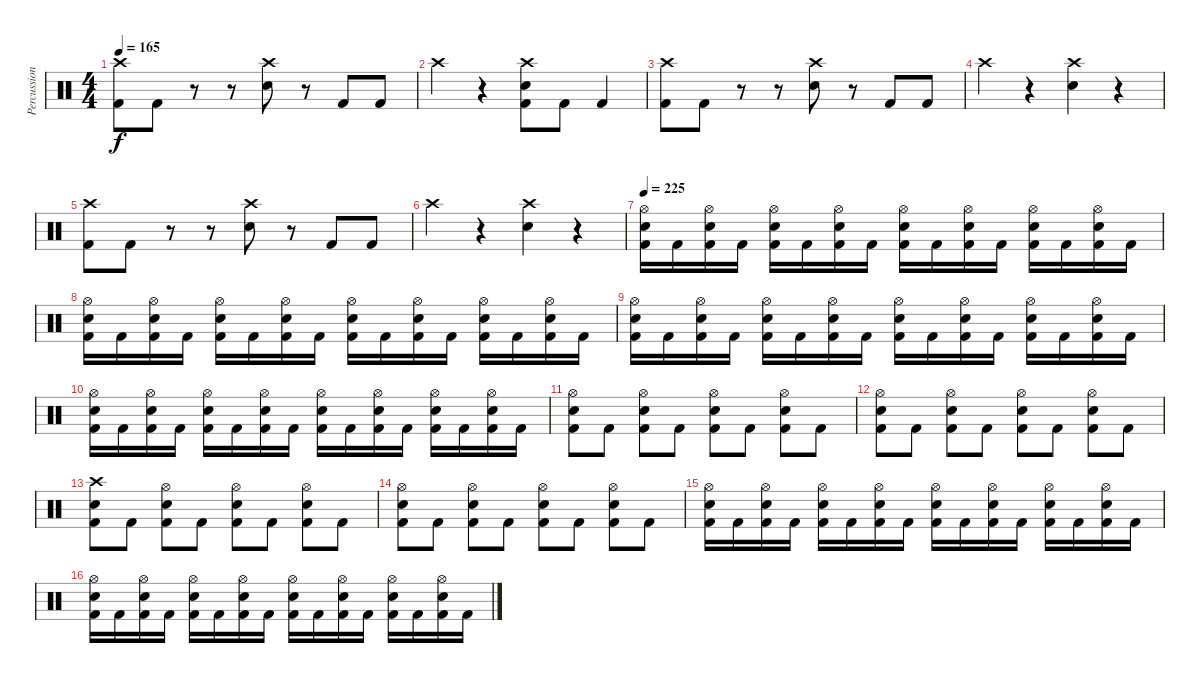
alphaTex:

\track ("Percussion" "Percussion") {instrument percussion}
\staff {score}
\articulation defaults
\ts (4 4)
\tempo 165
\clef neutral
\ks c
("Crash high (hit)" "Kick (hit) 2").8{dy f} "Kick (hit) 2".8 r.8 r.8 ("Crash high (hit)" "Electric Snare (hit)").8 r.8 "Kick (hit) 2".8 "Kick (hit) 2".8 |
"Crash high (hit)".4 r.4 ("Crash high (hit)" "Electric Snare (hit)" "Kick (hit) 2").8 "Kick (hit) 2".8 "Kick (hit) 2".4 |
("Crash high (hit)" "Kick (hit) 2").8 "Kick (hit) 2".8 r.8 r.8 ("Crash high (hit)" "Electric Snare (hit)").8 r.8 "Kick (hit) 2".8 "Kick (hit) 2".8 |
"Crash high (hit)".4 r.4 ("Crash high (hit)" "Electric Snare (hit)").4 r.4 |
("Crash high (hit)" "Kick (hit) 2").8 "Kick (hit) 2".8 r.8 r.8 ("Crash high (hit)" "Electric Snare (hit)").8 r.8 "Kick (hit) 2".8 "Kick (hit) 2".8 |
"Crash high (hit)".4 r.4 ("Crash high (hit)" "Electric Snare (hit)").4 r.4 |
\tempo 225
("Hi-Hat (open)" "Electric Snare (hit)" "Kick (hit) 2").16 "Kick (hit) 2".16 ("Hi-Hat (open)" "Electric Snare (hit)" "Kick (hit) 2").16 "Kick (hit) 2".16 ("Hi-Hat (open)" "Electric Snare (hit)" "Kick (hit) 2").16 "Kick (hit) 2".16 ("Hi-Hat (open)" "Electric Snare (hit)" "Kick (hit) 2").16 "Kick (hit) 2".16 ("Hi-Hat (open)" "Electric Snare (hit)" "Kick (hit) 2").16 "Kick (hit) 2".16 ("Hi-Hat (open)" "Electric Snare (hit)" "Kick (hit) 2").16 "Kick (hit) 2".16 ("Hi-Hat (open)" "Electric Snare (hit)" "Kick (hit) 2").16 "Kick (hit) 2".16 ("Hi-Hat (open)" "Electric Snare (hit)" "Kick (hit) 2").16 "Kick (hit) 2".16 |
("Hi-Hat (open)" "Electric Snare (hit)" "Kick (hit) 2").16 "Kick (hit) 2".16 ("Hi-Hat (open)" "Electric Snare (hit)" "Kick (hit) 2").16 "Kick (hit) 2".16 ("Hi-Hat (open)" "Electric Snare (hit)" "Kick (hit) 2").16 "Kick (hit) 2".16 ("Hi-Hat (open)" "Electric Snare (hit)" "Kick (hit) 2").16 "Kick (hit) 2".16 ("Hi-Hat (open)" "Electric Snare (hit)" "Kick (hit) 2").16 "Kick (hit) 2".16 ("Hi-Hat (open)" "Electric Snare (hit)" "Kick (hit) 2").16 "Kick (hit) 2".16 ("Hi-Hat (open)" "Electric Snare (hit)" "Kick (hit) 2").16 "Kick (hit) 2".16 ("Hi-Hat (open)" "Electric Snare (hit)" "Kick (hit) 2").16 "Kick (hit) 2".16 |
("Hi-Hat (open)" "Electric Snare (hit)" "Kick (hit) 2").16 "Kick (hit) 2".16 ("Hi-Hat (open)" "Electric Snare (hit)" "Kick (hit) 2").16 "Kick (hit) 2".16 ("Hi-Hat (open)" "Electric Snare (hit)" "Kick (hit) 2").16 "Kick (hit) 2".16 ("Hi-Hat (open)" "Electric Snare (hit)" "Kick (hit) 2").16 "Kick (hit) 2".16 ("Hi-Hat (open)" "Electric Snare (hit)" "Kick (hit) 2").16 "Kick (hit) 2".16 ("Hi-Hat (open)" "Electric Snare (hit)" "Kick (hit) 2").16 "Kick (hit) 2".16 ("Hi-Hat (open)" "Electric Snare (hit)" "Kick (hit) 2").16 "Kick (hit) 2".16 ("Hi-Hat (open)" "Electric Snare (hit)" "Kick (hit) 2").16 "Kick (hit) 2".16 |
("Hi-Hat (open)" "Electric Snare (hit)" "Kick (hit) 2").16 "Kick (hit) 2".16 ("Hi-Hat (open)" "Electric Snare (hit)" "Kick (hit) 2").16 "Kick (hit) 2".16 ("Hi-Hat (open)" "Electric Snare (hit)" "Kick (hit) 2").16 "Kick (hit) 2".16 ("Hi-Hat (open)" "Electric Snare (hit)" "Kick (hit) 2").16 "Kick (hit) 2".16 ("Hi-Hat (open)" "Electric Snare (hit)" "Kick (hit) 2").16 "Kick (hit) 2".16 ("Hi-Hat (open)" "Electric Snare (hit)" "Kick (hit) 2").16 "Kick (hit) 2".16 ("Hi-Hat (open)" "Electric Snare (hit)" "Kick (hit) 2").16 "Kick (hit) 2".16 ("Hi-Hat (open)" "Electric Snare (hit)" "Kick (hit) 2").16 "Kick (hit) 2".16 |
("Hi-Hat (open)" "Electric Snare (hit)" "Kick (hit) 2").8 "Kick (hit) 2".8 ("Hi-Hat (open)" "Electric Snare (hit)" "Kick (hit) 2").8 "Kick (hit) 2".8 ("Hi-Hat (open)" "Electric Snare (hit)" "Kick (hit) 2").8 "Kick (hit) 2".8 ("Hi-Hat (open)" "Electric Snare (hit)" "Kick (hit) 2").8 "Kick (hit) 2".8 |
("Hi-Hat (open)" "Electric Snare (hit)" "Kick (hit) 2").8 "Kick (hit) 2".8 ("Hi-Hat (open)" "Electric Snare (hit)" "Kick (hit) 2").8 "Kick (hit) 2".8 ("Hi-Hat (open)" "Electric Snare (hit)" "Kick (hit) 2").8 "Kick (hit) 2".8 ("Hi-Hat (open)" "Electric Snare (hit)" "Kick (hit) 2").8 "Kick (hit) 2".8 |
("Crash high (hit)" "Electric Snare (hit)" "Kick (hit) 2").8 "Kick (hit) 2".8 ("Hi-Hat (open)" "Electric Snare (hit)" "Kick (hit) 2").8 "Kick (hit) 2".8 ("Hi-Hat (open)" "Electric Snare (hit)" "Kick (hit) 2").8 "Kick (hit) 2".8 ("Hi-Hat (open)" "Electric Snare (hit)" "Kick (hit) 2").8 "Kick (hit) 2".8 |
("Hi-Hat (open)" "Electric Snare (hit)" "Kick (hit) 2").8 "Kick (hit) 2".8 ("Hi-Hat (open)" "Electric Snare (hit)" "Kick (hit) 2").8 "Kick (hit) 2".8 ("Hi-Hat (open)" "Electric Snare (hit)" "Kick (hit) 2").8 "Kick (hit) 2".8 ("Hi-Hat (open)" "Electric Snare (hit)" "Kick (hit) 2").8 "Kick (hit) 2".8 |
("Hi-Hat (open)" "Electric Snare (hit)" "Kick (hit) 2").16 "Kick (hit) 2".16 ("Hi-Hat (open)" "Electric Snare (hit)" "Kick (hit) 2").16 "Kick (hit) 2".16 ("Hi-Hat (open)" "Electric Snare (hit)" "Kick (hit) 2").16 "Kick (hit) 2".16 ("Hi-Hat (open)" "Electric Snare (hit)" "Kick (hit) 2").16 "Kick (hit) 2".16 ("Hi-Hat (open)" "Electric Snare (hit)" "Kick (hit) 2").16 "Kick (hit) 2".16 ("Hi-Hat (open)" "Electric Snare (hit)" "Kick (hit) 2").16 "Kick (hit) 2".16 ("Hi-Hat (open)" "Electric Snare (hit)" "Kick (hit) 2").16 "Kick (hit) 2".16 ("Hi-Hat (open)" "Electric Snare (hit)" "Kick (hit) 2").16 "Kick (hit) 2".16 |
("Hi-Hat (open)" "Electric Snare (hit)" "Kick (hit) 2").16 "Kick (hit) 2".16 ("Hi-Hat (open)" "Electric Snare (hit)" "Kick (hit) 2").16 "Kick (hit) 2".16 ("Hi-Hat (open)" "Electric Snare (hit)" "Kick (hit) 2").16 "Kick (hit) 2".16 ("Hi-Hat (open)" "Electric Snare (hit)" "Kick (hit) 2").16 "Kick (hit) 2".16 ("Hi-Hat (open)" "Electric Snare (hit)" "Kick (hit) 2").16 "Kick (hit) 2".16 ("Hi-Hat (open)" "Electric Snare (hit)" "Kick (hit) 2").16 "Kick (hit) 2".16 ("Hi-Hat (open)" "Electric Snare (hit)" "Kick (hit) 2").16 "Kick (hit) 2".16 ("Hi-Hat (open)" "Electric Snare (hit)" "Kick (hit) 2").16 "Kick (hit) 2".16
